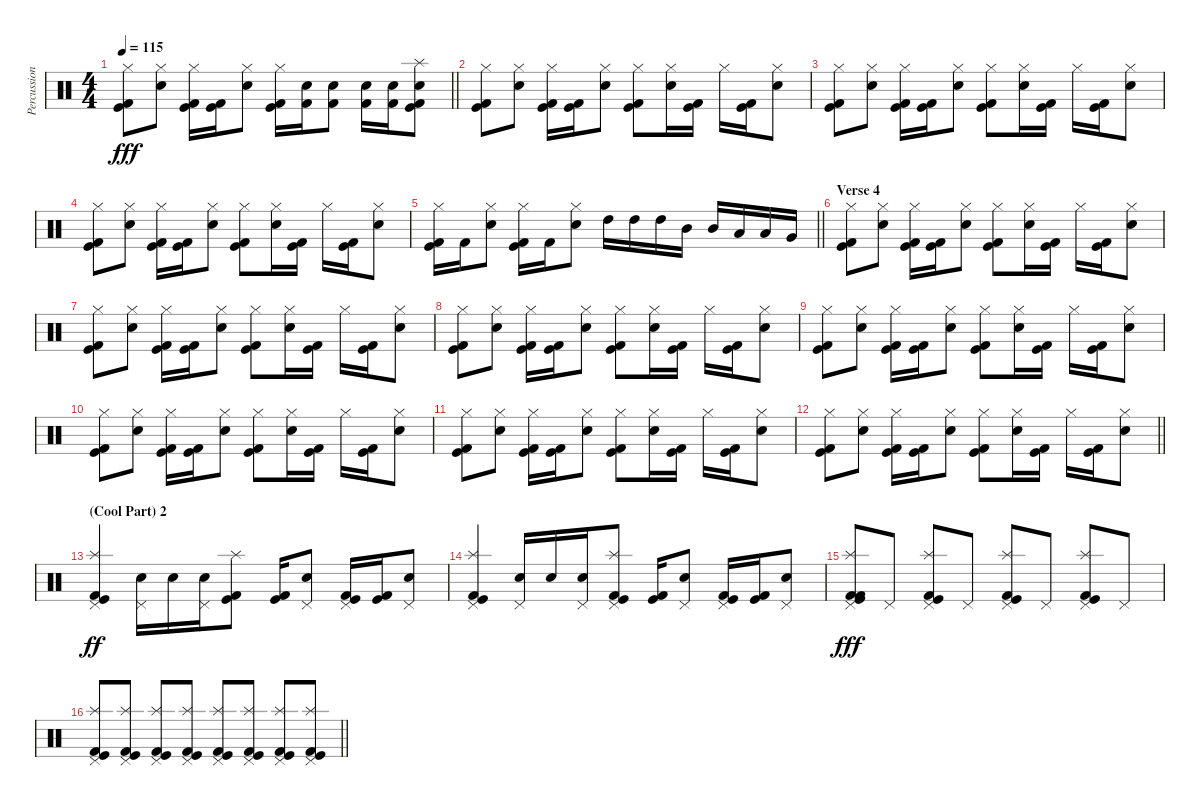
\track ("Percussion" "Percussion") {instrument percussion}
\staff {score}
\articulation defaults
\ts (4 4)
\tempo 115
\clef neutral
\barLineRight lightlight
\ks c
("Hi-Hat (closed)" "Kick (hit)" "Kick (hit) 2").8{dy fff} ("Snare (hit) 2" "Hi-Hat (closed)").8 ("Hi-Hat (closed)" "Kick (hit)" "Kick (hit) 2").16 ("Kick (hit)" "Kick (hit) 2").16 ("Snare (hit) 2" "Hi-Hat (closed)").8 ("Hi-Hat (closed)" "Kick (hit)" "Kick (hit) 2").16 ("Snare (hit) 2" "Kick (hit) 2").16 ("Snare (hit) 2" "Kick (hit) 2").8 ("Snare (hit) 2" "Kick (hit) 2").16 ("Snare (hit) 2" "Kick (hit) 2").16 ("Splash (hit)" "Snare (hit) 2" "Kick (hit)" "Kick (hit) 2").8 |
("Hi-Hat (closed)" "Kick (hit)" "Kick (hit) 2").8 ("Snare (hit) 2" "Hi-Hat (closed)").8 ("Hi-Hat (closed)" "Kick (hit)" "Kick (hit) 2").16 ("Kick (hit)" "Kick (hit) 2").16 ("Snare (hit) 2" "Hi-Hat (closed)").8 ("Hi-Hat (closed)" "Kick (hit)" "Kick (hit) 2").8 ("Snare (hit) 2" "Hi-Hat (closed)").16 ("Kick (hit)" "Kick (hit) 2").16 "Hi-Hat (closed)".16 ("Kick (hit)" "Kick (hit) 2").16 ("Snare (hit) 2" "Hi-Hat (closed)").8 |
("Hi-Hat (closed)" "Kick (hit)" "Kick (hit) 2").8 ("Snare (hit) 2" "Hi-Hat (closed)").8 ("Hi-Hat (closed)" "Kick (hit)" "Kick (hit) 2").16 ("Kick (hit)" "Kick (hit) 2").16 ("Snare (hit) 2" "Hi-Hat (closed)").8 ("Hi-Hat (closed)" "Kick (hit)" "Kick (hit) 2").8 ("Snare (hit) 2" "Hi-Hat (closed)").16 ("Kick (hit)" "Kick (hit) 2").16 "Hi-Hat (closed)".16 ("Kick (hit)" "Kick (hit) 2").16 ("Snare (hit) 2" "Hi-Hat (closed)").8 |
("Hi-Hat (closed)" "Kick (hit)" "Kick (hit) 2").8 ("Snare (hit) 2" "Hi-Hat (closed)").8 ("Hi-Hat (closed)" "Kick (hit)" "Kick (hit) 2").16 ("Kick (hit)" "Kick (hit) 2").16 ("Snare (hit) 2" "Hi-Hat (closed)").8 ("Hi-Hat (closed)" "Kick (hit)" "Kick (hit) 2").8 ("Snare (hit) 2" "Hi-Hat (closed)").16 ("Kick (hit)" "Kick (hit) 2").16 "Hi-Hat (closed)".16 ("Kick (hit)" "Kick (hit) 2").16 ("Snare (hit) 2" "Hi-Hat (closed)").8 |
\barLineRight lightlight
("Hi-Hat (closed)" "Kick (hit)" "Kick (hit) 2").16 "Kick (hit) 2".16 ("Snare (hit) 2" "Hi-Hat (closed)").8 ("Hi-Hat (closed)" "Kick (hit)" "Kick (hit) 2").16 "Kick (hit) 2".16 ("Snare (hit) 2" "Hi-Hat (closed)").8 "High Tom (hit)".16 "High Tom (hit)".16 "High Tom (hit)".16 "Mid Tom (hit)".16 "Mid Tom (hit)".16 "Low Tom (hit)".16 "Low Tom (hit)".16 "Very Low Tom (hit)".16 |
\section ("" "Verse 4")
("Hi-Hat (closed)" "Kick (hit)" "Kick (hit) 2").8 ("Snare (hit) 2" "Hi-Hat (closed)").8 ("Hi-Hat (closed)" "Kick (hit)" "Kick (hit) 2").16 ("Kick (hit)" "Kick (hit) 2").16 ("Snare (hit) 2" "Hi-Hat (closed)").8 ("Hi-Hat (closed)" "Kick (hit)" "Kick (hit) 2").8 ("Snare (hit) 2" "Hi-Hat (closed)").16 ("Kick (hit)" "Kick (hit) 2").16 "Hi-Hat (closed)".16 ("Kick (hit)" "Kick (hit) 2").16 ("Snare (hit) 2" "Hi-Hat (closed)").8 |
("Hi-Hat (closed)" "Kick (hit)" "Kick (hit) 2").8 ("Snare (hit) 2" "Hi-Hat (closed)").8 ("Hi-Hat (closed)" "Kick (hit)" "Kick (hit) 2").16 ("Kick (hit)" "Kick (hit) 2").16 ("Snare (hit) 2" "Hi-Hat (closed)").8 ("Hi-Hat (closed)" "Kick (hit)" "Kick (hit) 2").8 ("Snare (hit) 2" "Hi-Hat (closed)").16 ("Kick (hit)" "Kick (hit) 2").16 "Hi-Hat (closed)".16 ("Kick (hit)" "Kick (hit) 2").16 ("Snare (hit) 2" "Hi-Hat (closed)").8 |
("Hi-Hat (closed)" "Kick (hit)" "Kick (hit) 2").8 ("Snare (hit) 2" "Hi-Hat (closed)").8 ("Hi-Hat (closed)" "Kick (hit)" "Kick (hit) 2").16 ("Kick (hit)" "Kick (hit) 2").16 ("Snare (hit) 2" "Hi-Hat (closed)").8 ("Hi-Hat (closed)" "Kick (hit)" "Kick (hit) 2").8 ("Snare (hit) 2" "Hi-Hat (closed)").16 ("Kick (hit)" "Kick (hit) 2").16 "Hi-Hat (closed)".16 ("Kick (hit)" "Kick (hit) 2").16 ("Snare (hit) 2" "Hi-Hat (closed)").8 |
("Hi-Hat (closed)" "Kick (hit)" "Kick (hit) 2").8 ("Snare (hit) 2" "Hi-Hat (closed)").8 ("Hi-Hat (closed)" "Kick (hit)" "Kick (hit) 2").16 ("Kick (hit)" "Kick (hit) 2").16 ("Snare (hit) 2" "Hi-Hat (closed)").8 ("Hi-Hat (closed)" "Kick (hit)" "Kick (hit) 2").8 ("Snare (hit) 2" "Hi-Hat (closed)").16 ("Kick (hit)" "Kick (hit) 2").16 "Hi-Hat (closed)".16 ("Kick (hit)" "Kick (hit) 2").16 ("Snare (hit) 2" "Hi-Hat (closed)").8 |
("Hi-Hat (closed)" "Kick (hit)" "Kick (hit) 2").8 ("Snare (hit) 2" "Hi-Hat (closed)").8 ("Hi-Hat (closed)" "Kick (hit)" "Kick (hit) 2").16 ("Kick (hit)" "Kick (hit) 2").16 ("Snare (hit) 2" "Hi-Hat (closed)").8 ("Hi-Hat (closed)" "Kick (hit)" "Kick (hit) 2").8 ("Snare (hit) 2" "Hi-Hat (closed)").16 ("Kick (hit)" "Kick (hit) 2").16 "Hi-Hat (closed)".16 ("Kick (hit)" "Kick (hit) 2").16 ("Snare (hit) 2" "Hi-Hat (closed)").8 |
("Hi-Hat (closed)" "Kick (hit)" "Kick (hit) 2").8 ("Snare (hit) 2" "Hi-Hat (closed)").8 ("Hi-Hat (closed)" "Kick (hit)" "Kick (hit) 2").16 ("Kick (hit)" "Kick (hit) 2").16 ("Snare (hit) 2" "Hi-Hat (closed)").8 ("Hi-Hat (closed)" "Kick (hit)" "Kick (hit) 2").8 ("Snare (hit) 2" "Hi-Hat (closed)").16 ("Kick (hit)" "Kick (hit) 2").16 "Hi-Hat (closed)".16 ("Kick (hit)" "Kick (hit) 2").16 ("Snare (hit) 2" "Hi-Hat (closed)").8 |
\barLineRight lightlight
("Hi-Hat (closed)" "Kick (hit)" "Kick (hit) 2").8 ("Snare (hit) 2" "Hi-Hat (closed)").8 ("Hi-Hat (closed)" "Kick (hit)" "Kick (hit) 2").16 ("Kick (hit)" "Kick (hit) 2").16 ("Snare (hit) 2" "Hi-Hat (closed)").8 ("Hi-Hat (closed)" "Kick (hit)" "Kick (hit) 2").8 ("Snare (hit) 2" "Hi-Hat (closed)").16 ("Kick (hit)" "Kick (hit) 2").16 "Hi-Hat (closed)".16 ("Kick (hit)" "Kick (hit) 2").16 ("Snare (hit) 2" "Hi-Hat (closed)").8 |
\section ("" "(Cool Part) 2")
("Splash (hit)" "Pedal Hi-Hat (hit)" "Kick (hit) 2" "Kick (hit)").4{dy ff} ("Snare (hit) 2" "Pedal Hi-Hat (hit)").16 "Snare (hit) 2".16 ("Snare (hit) 2" "Pedal Hi-Hat (hit)").16 ("Splash (hit)" "Kick (hit) 2" "Kick (hit)").8 ("Kick (hit) 2" "Kick (hit)").16 ("Snare (hit) 2" "Pedal Hi-Hat (hit)").8 ("Pedal Hi-Hat (hit)" "Kick (hit) 2" "Kick (hit)").16 ("Kick (hit) 2" "Kick (hit)").16 ("Snare (hit) 2" "Pedal Hi-Hat (hit)").8 |
("Splash (hit)" "Pedal Hi-Hat (hit)" "Kick (hit) 2" "Kick (hit)").4 ("Snare (hit) 2" "Pedal Hi-Hat (hit)").16 "Snare (hit) 2".16 ("Snare (hit) 2" "Pedal Hi-Hat (hit)").16 ("Splash (hit)" "Pedal Hi-Hat (hit)" "Kick (hit) 2" "Kick (hit)").8 ("Kick (hit) 2" "Kick (hit)").16 ("Snare (hit) 2" "Pedal Hi-Hat (hit)").8 ("Pedal Hi-Hat (hit)" "Kick (hit) 2" "Kick (hit)").16 ("Kick (hit) 2" "Kick (hit)").16 ("Snare (hit) 2" "Pedal Hi-Hat (hit)").8 |
("Splash (hit)" "Pedal Hi-Hat (hit)" "Kick (hit) 2" "Kick (hit)" "Kick (hit) 2").8{dy fff} "Pedal Hi-Hat (hit)".8 ("Splash (hit)" "Pedal Hi-Hat (hit)" "Kick (hit)" "Kick (hit) 2").8 "Pedal Hi-Hat (hit)".8 ("Splash (hit)" "Pedal Hi-Hat (hit)" "Kick (hit)" "Kick (hit) 2").8 "Pedal Hi-Hat (hit)".8 ("Splash (hit)" "Pedal Hi-Hat (hit)" "Kick (hit)" "Kick (hit) 2").8 "Pedal Hi-Hat (hit)".8 |
\barLineRight lightlight
("Splash (hit)" "Pedal Hi-Hat (hit)" "Kick (hit)" "Kick (hit) 2").8 ("Splash (hit)" "Pedal Hi-Hat (hit)" "Kick (hit)" "Kick (hit) 2").8 ("Splash (hit)" "Pedal Hi-Hat (hit)" "Kick (hit)" "Kick (hit) 2").8 ("Splash (hit)" "Pedal Hi-Hat (hit)" "Kick (hit)" "Kick (hit) 2").8 ("Splash (hit)" "Pedal Hi-Hat (hit)" "Kick (hit)" "Kick (hit) 2").8 ("Splash (hit)" "Pedal Hi-Hat (hit)" "Kick (hit)" "Kick (hit) 2").8 ("Splash (hit)" "Pedal Hi-Hat (hit)" "Kick (hit)" "Kick (hit) 2").8 ("Splash (hit)" "Pedal Hi-Hat (hit)" "Kick (hit)" "Kick (hit) 2").8
